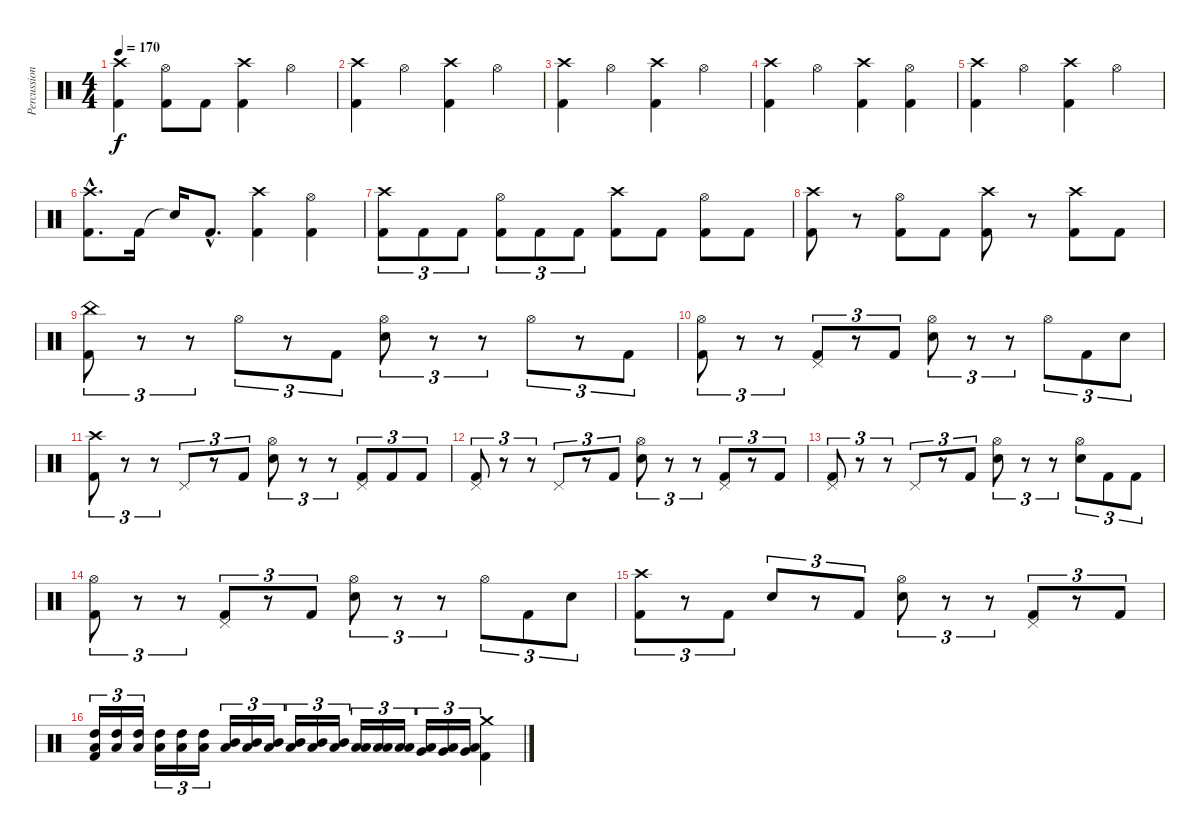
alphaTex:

\track ("Percussion" "Percussion") {instrument percussion}
\staff {score}
\articulation defaults
\ts (4 4)
\tempo 170
\clef neutral
\ks c
("Crash high (hit)" "Kick (hit) 2").4{dy f} ("Hi-Hat (open)" "Kick (hit) 2").8 "Kick (hit) 2".8 ("Crash high (hit)" "Kick (hit) 2").4 "Hi-Hat (open)".4 |
("Crash high (hit)" "Kick (hit) 2").4 "Hi-Hat (open)".4 ("Crash high (hit)" "Kick (hit) 2").4 "Hi-Hat (open)".4 |
("Crash high (hit)" "Kick (hit) 2").4 "Hi-Hat (open)".4 ("Crash high (hit)" "Kick (hit) 2").4 "Hi-Hat (open)".4 |
("Crash high (hit)" "Kick (hit) 2").4 "Hi-Hat (open)".4 ("Crash high (hit)" "Kick (hit) 2").4 ("Hi-Hat (open)" "Kick (hit) 2").4 |
("Crash high (hit)" "Kick (hit) 2").4 "Hi-Hat (open)".4 ("Crash high (hit)" "Kick (hit) 2").4 "Hi-Hat (open)".4 |
("Crash high (hit)"{hac} "Kick (hit) 2"{hac}).8{d} "Kick (hit) 2".16 "Snare (hit)"{t}.16 "Kick (hit) 2"{hac}.8{d} ("Crash high (hit)" "Kick (hit) 2").4 ("Hi-Hat (open)" "Kick (hit) 2").4 |
("Crash high (hit)" "Kick (hit) 2").8{tu (3 2)} "Kick (hit) 2".8{tu (3 2)} "Kick (hit) 2".8{tu (3 2)} ("Hi-Hat (open)" "Kick (hit) 2").8{tu (3 2)} "Kick (hit) 2".8{tu (3 2)} "Kick (hit) 2".8{tu (3 2)} ("Crash high (hit)" "Kick (hit) 2").8 "Kick (hit) 2".8 ("Hi-Hat (open)" "Kick (hit) 2").8 "Kick (hit) 2".8 |
("Crash high (hit)" "Kick (hit) 2").8 r.8 ("Hi-Hat (open)" "Kick (hit) 2").8 "Kick (hit) 2".8 ("Crash high (hit)" "Kick (hit) 2").8 r.8 ("Crash high (hit)" "Kick (hit) 2").8 "Kick (hit) 2".8 |
("China (hit)" "Kick (hit) 2").8{tu (3 2)} r.8{tu (3 2)} r.8{tu (3 2)} "Hi-Hat (open)".8{tu (3 2)} r.8{tu (3 2)} "Kick (hit) 2".8{tu (3 2)} ("Hi-Hat (open)" "Electric Snare (hit)").8{tu (3 2)} r.8{tu (3 2)} r.8{tu (3 2)} "Hi-Hat (open)".8{tu (3 2)} r.8{tu (3 2)} "Kick (hit) 2".8{tu (3 2)} |
("Hi-Hat (open)" "Kick (hit) 2").8{tu (3 2)} r.8{tu (3 2)} r.8{tu (3 2)} ("Pedal Hi-Hat (hit)" "Kick (hit) 2").8{tu (3 2)} r.8{tu (3 2)} "Kick (hit) 2".8{tu (3 2)} ("Hi-Hat (open)" "Electric Snare (hit)").8{tu (3 2)} r.8{tu (3 2)} r.8{tu (3 2)} "Hi-Hat (open)".8{tu (3 2)} "Kick (hit) 2".8{tu (3 2)} "Electric Snare (hit)".8{tu (3 2)} |
("Crash high (hit)" "Kick (hit) 2").8{tu (3 2)} r.8{tu (3 2)} r.8{tu (3 2)} "Pedal Hi-Hat (hit)".8{tu (3 2)} r.8{tu (3 2)} "Kick (hit) 2".8{tu (3 2)} ("Hi-Hat (open)" "Electric Snare (hit)").8{tu (3 2)} r.8{tu (3 2)} r.8{tu (3 2)} ("Pedal Hi-Hat (hit)" "Kick (hit) 2").8{tu (3 2)} "Kick (hit) 2".8{tu (3 2)} "Kick (hit) 2".8{tu (3 2)} |
("Pedal Hi-Hat (hit)" "Kick (hit) 2").8{tu (3 2)} r.8{tu (3 2)} r.8{tu (3 2)} "Pedal Hi-Hat (hit)".8{tu (3 2)} r.8{tu (3 2)} "Kick (hit) 2".8{tu (3 2)} ("Hi-Hat (open)" "Electric Snare (hit)").8{tu (3 2)} r.8{tu (3 2)} r.8{tu (3 2)} ("Pedal Hi-Hat (hit)" "Kick (hit) 2").8{tu (3 2)} r.8{tu (3 2)} "Kick (hit) 2".8{tu (3 2)} |
("Pedal Hi-Hat (hit)" "Kick (hit) 2").8{tu (3 2)} r.8{tu (3 2)} r.8{tu (3 2)} "Pedal Hi-Hat (hit)".8{tu (3 2)} r.8{tu (3 2)} "Kick (hit) 2".8{tu (3 2)} ("Hi-Hat (open)" "Electric Snare (hit)").8{tu (3 2)} r.8{tu (3 2)} r.8{tu (3 2)} ("Hi-Hat (open)" "Electric Snare (hit)").8{tu (3 2)} "Kick (hit) 2".8{tu (3 2)} "Kick (hit) 2".8{tu (3 2)} |
("Hi-Hat (open)" "Kick (hit) 2").8{tu (3 2)} r.8{tu (3 2)} r.8{tu (3 2)} ("Pedal Hi-Hat (hit)" "Kick (hit) 2").8{tu (3 2)} r.8{tu (3 2)} "Kick (hit) 2".8{tu (3 2)} ("Hi-Hat (open)" "Electric Snare (hit)").8{tu (3 2)} r.8{tu (3 2)} r.8{tu (3 2)} "Hi-Hat (open)".8{tu (3 2)} "Kick (hit) 2".8{tu (3 2)} "Electric Snare (hit)".8{tu (3 2)} |
("Crash high (hit)" "Kick (hit) 2").8{tu (3 2)} r.8{tu (3 2)} "Kick (hit) 2".8{tu (3 2)} "Electric Snare (hit)".8{tu (3 2)} r.8{tu (3 2)} "Kick (hit) 2".8{tu (3 2)} ("Hi-Hat (open)" "Electric Snare (hit)").8{tu (3 2)} r.8{tu (3 2)} r.8{tu (3 2)} ("Pedal Hi-Hat (hit)" "Kick (hit) 2").8{tu (3 2)} r.8{tu (3 2)} "Kick (hit) 2".8{tu (3 2)} |
("High Tom (hit)" "Low Floor Tom (hit)" "Kick (hit) 2").16{tu (3 2)} ("High Tom (hit)" "Low Floor Tom (hit)").16{tu (3 2)} ("High Tom (hit)" "Low Floor Tom (hit)").16{tu (3 2)} ("High Tom (hit)" "Low Floor Tom (hit)").16{tu (3 2)} ("High Tom (hit)" "Low Floor Tom (hit)").16{tu (3 2)} ("High Tom (hit)" "Low Floor Tom (hit)").16{tu (3 2)} ("Mid Tom (hit)" "Low Floor Tom (hit)").16{tu (3 2)} ("Mid Tom (hit)" "Low Floor Tom (hit)").16{tu (3 2)} ("Mid Tom (hit)" "Low Floor Tom (hit)").16{tu (3 2)} ("Mid Tom (hit)" "Low Floor Tom (hit)").16{tu (3 2)} ("Mid Tom (hit)" "Low Floor Tom (hit)").16{tu (3 2)} ("Mid Tom (hit)" "Low Floor Tom (hit)").16{tu (3 2)} ("Low Tom (hit)" "Low Floor Tom (hit)").16{tu (3 2)} ("Low Tom (hit)" "Low Floor Tom (hit)").16{tu (3 2)} ("Low Tom (hit)" "Low Floor Tom (hit)").16{tu (3 2)} ("Very Low Tom (hit)" "Low Floor Tom (hit)").16{tu (3 2)} ("Very Low Tom (hit)" "Low Floor Tom (hit)").16{tu (3 2)} ("Very Low Tom (hit)" "Low Floor Tom (hit)").16{tu (3 2)} ("Crash medium (hit)" "Kick (hit) 2").4
